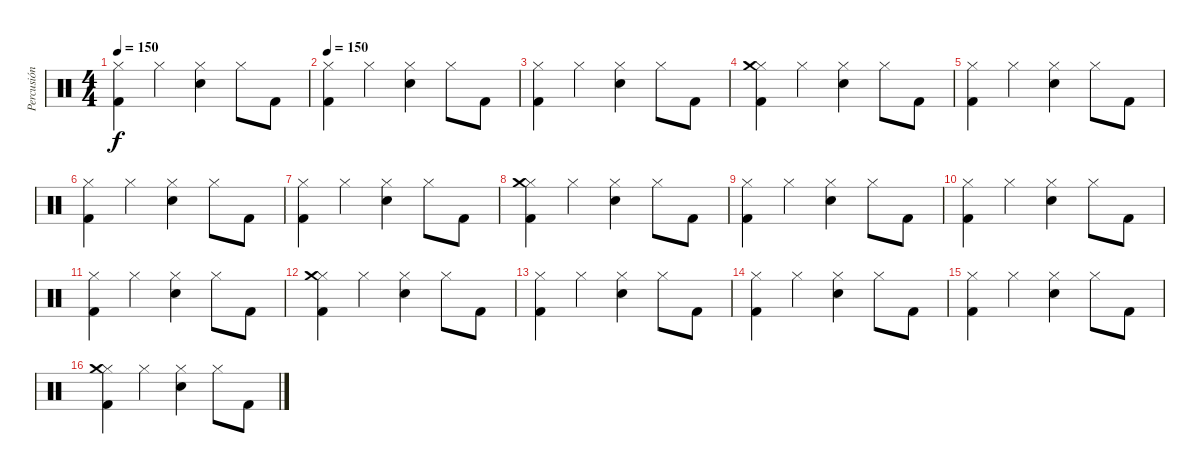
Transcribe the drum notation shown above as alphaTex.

\track ("Percusión" "Percusión") {instrument percussion}
\staff {score}
\articulation defaults
\ts (4 4)
\tempo 150
\clef neutral
\ks c
("Hi-Hat (closed)" "Kick (hit) 2").4{dy f} "Hi-Hat (closed)".4 ("Hi-Hat (closed)" "Snare (hit) 2").4 "Hi-Hat (closed)".8 "Kick (hit) 2".8 |
\tempo 150
("Hi-Hat (closed)" "Kick (hit) 2").4 "Hi-Hat (closed)".4 ("Hi-Hat (closed)" "Snare (hit) 2").4 "Hi-Hat (closed)".8 "Kick (hit) 2".8 |
("Hi-Hat (closed)" "Kick (hit) 2").4 "Hi-Hat (closed)".4 ("Hi-Hat (closed)" "Snare (hit) 2").4 "Hi-Hat (closed)".8 "Kick (hit) 2".8 |
("Hi-Hat (closed)" "Crash medium (hit)" "Kick (hit) 2").4 "Hi-Hat (closed)".4 ("Hi-Hat (closed)" "Snare (hit) 2").4 "Hi-Hat (closed)".8 "Kick (hit) 2".8 |
("Hi-Hat (closed)" "Kick (hit) 2").4 "Hi-Hat (closed)".4 ("Hi-Hat (closed)" "Snare (hit) 2").4 "Hi-Hat (closed)".8 "Kick (hit) 2".8 |
("Hi-Hat (closed)" "Kick (hit) 2").4 "Hi-Hat (closed)".4 ("Hi-Hat (closed)" "Snare (hit) 2").4 "Hi-Hat (closed)".8 "Kick (hit) 2".8 |
("Hi-Hat (closed)" "Kick (hit) 2").4 "Hi-Hat (closed)".4 ("Hi-Hat (closed)" "Snare (hit) 2").4 "Hi-Hat (closed)".8 "Kick (hit) 2".8 |
("Hi-Hat (closed)" "Crash medium (hit)" "Kick (hit) 2").4 "Hi-Hat (closed)".4 ("Hi-Hat (closed)" "Snare (hit) 2").4 "Hi-Hat (closed)".8 "Kick (hit) 2".8 |
("Hi-Hat (closed)" "Kick (hit) 2").4 "Hi-Hat (closed)".4 ("Hi-Hat (closed)" "Snare (hit) 2").4 "Hi-Hat (closed)".8 "Kick (hit) 2".8 |
("Hi-Hat (closed)" "Kick (hit) 2").4 "Hi-Hat (closed)".4 ("Hi-Hat (closed)" "Snare (hit) 2").4 "Hi-Hat (closed)".8 "Kick (hit) 2".8 |
("Hi-Hat (closed)" "Kick (hit) 2").4 "Hi-Hat (closed)".4 ("Hi-Hat (closed)" "Snare (hit) 2").4 "Hi-Hat (closed)".8 "Kick (hit) 2".8 |
("Hi-Hat (closed)" "Crash medium (hit)" "Kick (hit) 2").4 "Hi-Hat (closed)".4 ("Hi-Hat (closed)" "Snare (hit) 2").4 "Hi-Hat (closed)".8 "Kick (hit) 2".8 |
("Hi-Hat (closed)" "Kick (hit) 2").4 "Hi-Hat (closed)".4 ("Hi-Hat (closed)" "Snare (hit) 2").4 "Hi-Hat (closed)".8 "Kick (hit) 2".8 |
("Hi-Hat (closed)" "Kick (hit) 2").4 "Hi-Hat (closed)".4 ("Hi-Hat (closed)" "Snare (hit) 2").4 "Hi-Hat (closed)".8 "Kick (hit) 2".8 |
("Hi-Hat (closed)" "Kick (hit) 2").4 "Hi-Hat (closed)".4 ("Hi-Hat (closed)" "Snare (hit) 2").4 "Hi-Hat (closed)".8 "Kick (hit) 2".8 |
("Hi-Hat (closed)" "Crash medium (hit)" "Kick (hit) 2").4 "Hi-Hat (closed)".4 ("Hi-Hat (closed)" "Snare (hit) 2").4 "Hi-Hat (closed)".8 "Kick (hit) 2".8
